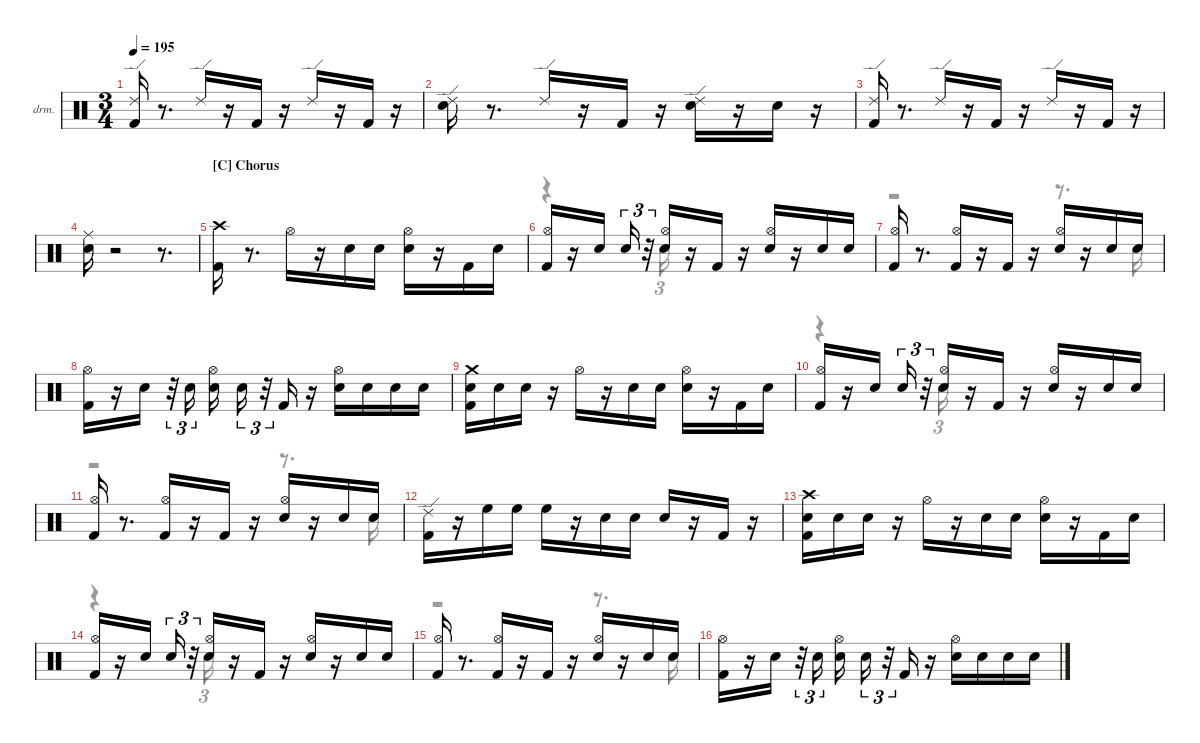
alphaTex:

\hideDynamics
\bracketExtendMode nobrackets
\firstSystemTrackNameOrientation horizontal
\track ("Drums" "drm.") {instrument percussion}
\staff {score}
\articulation defaults
\voice
\ts (3 4)
\tempo 195
\clef neutral
\ks aminor
("Kick (hit) 2" "Ride (edge) 2").16{dy ff} r.8{d} "Ride (edge) 2".16{dy p} r.16 "Kick (hit) 2".16{dy ff} r.16 "Ride (edge) 2".16{dy mf} r.16 "Kick (hit) 2".16{dy ff} r.16 |
("Snare (hit) 2" "Ride (edge) 2").16 r.8{d} "Ride (edge) 2".16{dy p} r.16 "Kick (hit) 2".16{dy ff} r.16 ("Snare (hit) 2" "Ride (edge) 2").16 r.16 "Snare (hit) 2".16{dy ppp} r.16 |
("Kick (hit) 2" "Ride (edge) 2").16{dy ff} r.8{d} "Ride (edge) 2".16{dy p} r.16 "Kick (hit) 2".16{dy ff} r.16 "Ride (edge) 2".16{dy fff} r.16 "Kick (hit) 2".16{dy ff} r.16 |
("Snare (hit) 2" "Ride (middle)"{acc #}).16{dy fff} r.2 r.8{d} |
\section ("C" "Chorus")
("Kick (hit) 2" "Crash high (hit)"{acc #}).16 r.8{d} "Hi-Hat (open)"{acc #}.16{dy mp} r.16 "Snare (hit) 2".16{dy ff} "Snare (hit) 2".16{dy pp} ("Snare (hit) 2" "Hi-Hat (open)"{acc #}).16{dy mf} r.16 "Kick (hit) 2".16{dy p} "Snare (hit) 2".16{dy ppp} |
("Kick (hit) 2" "Hi-Hat (open)"{acc #}).16{dy fff} r.16 "Snare (hit) 2".16{dy ff} "Snare (hit) 2".16{tu (3 2) dy pp} r.32{tu (3 2)} ("Snare (hit) 2" "Hi-Hat (open)"{acc #}).16{dy ppp} r.16 "Kick (hit) 2".16{dy f} r.16 ("Snare (hit) 2" "Hi-Hat (open)"{acc #}).16{dy ff} r.16 "Snare (hit) 2".16{dy f} "Snare (hit) 2".16{dy ppp} |
("Kick (hit) 2" "Hi-Hat (open)"{acc #}).16{dy fff} r.8{d} ("Kick (hit) 2" "Hi-Hat (open)"{acc #}).16{dy mp} r.16 "Kick (hit) 2".16{dy ff} r.16 ("Snare (hit) 2" "Hi-Hat (open)"{acc #}).16 r.16 "Snare (hit) 2".16{dy pp} "Snare (hit) 2".16{dy ppp} |
("Kick (hit) 2" "Hi-Hat (open)"{acc #}).16{dy ff} r.16 "Snare (hit) 2".16{dy fff} r.32{tu (3 2)} "Snare (hit) 2".16{tu (3 2) dy pp} ("Snare (hit) 2" "Hi-Hat (open)"{acc #}).16{dy ppp} "Snare (hit) 2".16{tu (3 2)} r.32{tu (3 2)} "Kick (hit) 2".16{dy f} r.16 ("Snare (hit) 2" "Hi-Hat (open)"{acc #}).16{dy mf} "Snare (hit) 2".16{dy ppp} "Snare (hit) 2".16 "Snare (hit) 2".16 |
("Kick (hit) 2" "Snare (hit) 2" "Crash medium (hit)").16{dy fff} "Snare (hit) 2".16{dy pp} "Snare (hit) 2".16{dy ppp} r.16 "Hi-Hat (open)"{acc #}.16{dy mp} r.16 "Snare (hit) 2".16{dy ff} "Snare (hit) 2".16{dy pp} ("Snare (hit) 2" "Hi-Hat (open)"{acc #}).16{dy ppp} r.16 "Kick (hit) 2".16{dy p} "Snare (hit) 2".16{dy ppp} |
("Kick (hit) 2" "Hi-Hat (open)"{acc #}).16{dy ff} r.16 "Snare (hit) 2".16 "Snare (hit) 2".16{tu (3 2) dy pp} r.32{tu (3 2)} ("Snare (hit) 2" "Hi-Hat (open)"{acc #}).16{dy ppp} r.16 "Kick (hit) 2".16{dy f} r.16 ("Snare (hit) 2" "Hi-Hat (open)"{acc #}).16{dy mf} r.16 "Snare (hit) 2".16{dy f} "Snare (hit) 2".16{dy ppp} |
("Kick (hit) 2" "Hi-Hat (open)"{acc #}).16{dy fff} r.8{d} ("Kick (hit) 2" "Hi-Hat (open)"{acc #}).16{dy mf} r.16 "Kick (hit) 2".16{dy ff} r.16 ("Snare (hit) 2" "Hi-Hat (open)"{acc #}).16 r.16 "Snare (hit) 2".16{dy pp} "Snare (hit) 2".16{dy ppp} |
("Kick (hit) 2" "Ride (edge) 2").16{dy ff} r.16 "High Floor Tom (hit)".16 "High Floor Tom (hit)".16{dy mf} "High Floor Tom (hit)".16{dy ff} r.16 "Snare (hit) 2".16{dy f} "Snare (hit) 2".16{dy p} "Snare (hit) 2".16{dy ff} r.16 "Kick (hit) 2".16{dy mp} r.16 |
("Crash high (hit)"{acc #} "Kick (hit) 2" "Snare (hit) 2").16{dy fff} "Snare (hit) 2".16{dy pp} "Snare (hit) 2".16{dy ppp} r.16 "Hi-Hat (open)"{acc #}.16{dy mp} r.16 "Snare (hit) 2".16{dy ff} "Snare (hit) 2".16{dy pp} ("Snare (hit) 2" "Hi-Hat (open)"{acc #}).16{dy ppp} r.16 "Kick (hit) 2".16{dy p} "Snare (hit) 2".16{dy ppp} |
("Kick (hit) 2" "Hi-Hat (open)"{acc #}).16{dy ff} r.16 "Snare (hit) 2".16 "Snare (hit) 2".16{tu (3 2) dy pp} r.32{tu (3 2)} ("Snare (hit) 2" "Hi-Hat (open)"{acc #}).16{dy ppp} r.16 "Kick (hit) 2".16{dy f} r.16 ("Snare (hit) 2" "Hi-Hat (open)"{acc #}).16{dy ff} r.16 "Snare (hit) 2".16{dy f} "Snare (hit) 2".16{dy ppp} |
("Kick (hit) 2" "Hi-Hat (open)"{acc #}).16{dy fff} r.8{d} ("Kick (hit) 2" "Hi-Hat (open)"{acc #}).16{dy mp} r.16 "Kick (hit) 2".16{dy ff} r.16 ("Snare (hit) 2" "Hi-Hat (open)"{acc #}).16 r.16 "Snare (hit) 2".16{dy pp} "Snare (hit) 2".16{dy ppp} |
("Kick (hit) 2" "Hi-Hat (open)"{acc #}).16{dy fff} r.16 "Snare (hit) 2".16 r.32{tu (3 2)} "Snare (hit) 2".16{tu (3 2) dy pp} ("Snare (hit) 2" "Hi-Hat (open)"{acc #}).16{dy mp} "Snare (hit) 2".16{tu (3 2) dy ppp} r.32{tu (3 2)} "Kick (hit) 2".16{dy f} r.16 ("Snare (hit) 2" "Hi-Hat (open)"{acc #}).16{dy mf} "Snare (hit) 2".16{dy ppp} "Snare (hit) 2".16 "Snare (hit) 2".16
\voice
\clef neutral
\ottava regular
\simile none
\ks aminor
|
|
|
|
|
r.4 "Snare (hit) 2".16{tu (3 2) dy ppp} |
r.2 r.8{d} "Snare (hit) 2".16 |
|
|
r.4 "Snare (hit) 2".16{tu (3 2)} |
r.2 r.8{d} "Snare (hit) 2".16 |
|
|
r.4 "Snare (hit) 2".16{tu (3 2)} |
r.2 r.8{d} "Snare (hit) 2".16 |
